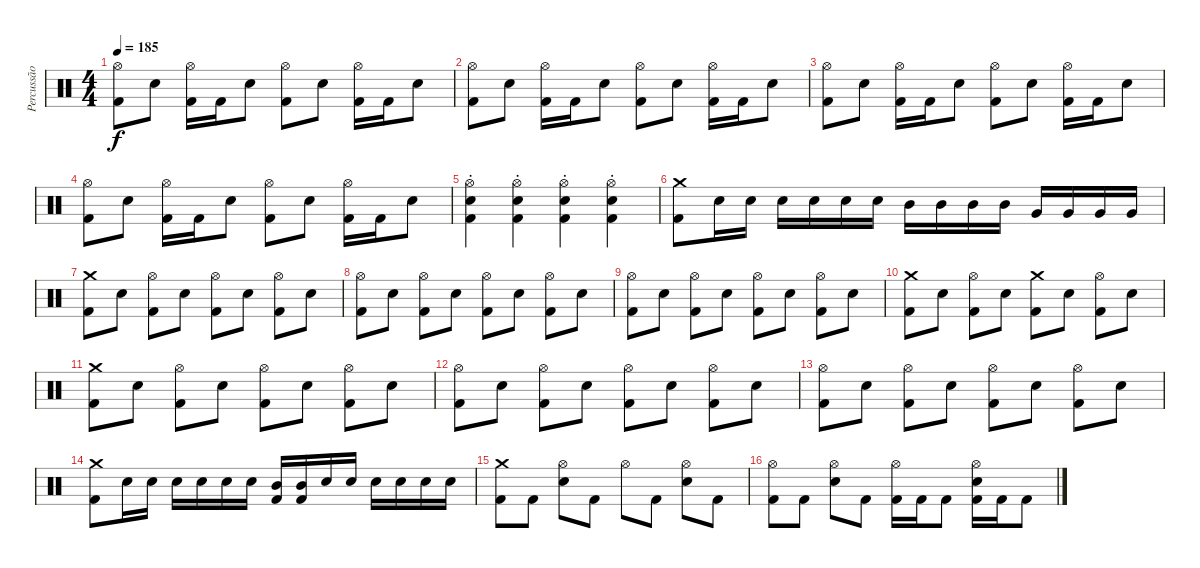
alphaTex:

\track ("Percussão" "Percussão") {instrument percussion}
\staff {score}
\articulation defaults
\ts (4 4)
\tempo 185
\clef neutral
\ks c
("Hi-Hat (open)" "Kick (hit) 2").8{dy f} "Snare (hit) 2".8 ("Hi-Hat (open)" "Kick (hit) 2").16 "Kick (hit) 2".16 "Snare (hit) 2".8 ("Hi-Hat (open)" "Kick (hit) 2").8 "Snare (hit) 2".8 ("Hi-Hat (open)" "Kick (hit) 2").16 "Kick (hit) 2".16 "Snare (hit) 2".8 |
("Hi-Hat (open)" "Kick (hit) 2").8 "Snare (hit) 2".8 ("Hi-Hat (open)" "Kick (hit) 2").16 "Kick (hit) 2".16 "Snare (hit) 2".8 ("Hi-Hat (open)" "Kick (hit) 2").8 "Snare (hit) 2".8 ("Hi-Hat (open)" "Kick (hit) 2").16 "Kick (hit) 2".16 "Snare (hit) 2".8 |
("Hi-Hat (open)" "Kick (hit) 2").8 "Snare (hit) 2".8 ("Hi-Hat (open)" "Kick (hit) 2").16 "Kick (hit) 2".16 "Snare (hit) 2".8 ("Hi-Hat (open)" "Kick (hit) 2").8 "Snare (hit) 2".8 ("Hi-Hat (open)" "Kick (hit) 2").16 "Kick (hit) 2".16 "Snare (hit) 2".8 |
("Hi-Hat (open)" "Kick (hit) 2").8 "Snare (hit) 2".8 ("Hi-Hat (open)" "Kick (hit) 2").16 "Kick (hit) 2".16 "Snare (hit) 2".8 ("Hi-Hat (open)" "Kick (hit) 2").8 "Snare (hit) 2".8 ("Hi-Hat (open)" "Kick (hit) 2").16 "Kick (hit) 2".16 "Snare (hit) 2".8 |
("Hi-Hat (open)"{st} "Snare (hit) 2" "Kick (hit) 2").4 ("Hi-Hat (open)"{st} "Snare (hit) 2" "Kick (hit) 2").4 ("Hi-Hat (open)"{st} "Snare (hit) 2" "Kick (hit) 2").4 ("Hi-Hat (open)"{st} "Snare (hit) 2" "Kick (hit) 2").4 |
("Crash medium (hit)" "Kick (hit) 2").8 "Snare (hit) 2".16 "Snare (hit) 2".16 "Snare (hit) 2".16 "Snare (hit) 2".16 "Snare (hit) 2".16 "Snare (hit) 2".16 "Mid Tom (hit)".16 "Mid Tom (hit)".16 "Mid Tom (hit)".16 "Mid Tom (hit)".16 "Very Low Tom (hit)".16 "Very Low Tom (hit)".16 "Very Low Tom (hit)".16 "Very Low Tom (hit)".16 |
("Crash medium (hit)" "Kick (hit) 2").8 "Snare (hit) 2".8 ("Hi-Hat (open)" "Kick (hit) 2").8 "Snare (hit) 2".8 ("Hi-Hat (open)" "Kick (hit) 2").8 "Snare (hit) 2".8 ("Hi-Hat (open)" "Kick (hit) 2").8 "Snare (hit) 2".8 |
("Hi-Hat (open)" "Kick (hit) 2").8 "Snare (hit) 2".8 ("Hi-Hat (open)" "Kick (hit) 2").8 "Snare (hit) 2".8 ("Hi-Hat (open)" "Kick (hit) 2").8 "Snare (hit) 2".8 ("Hi-Hat (open)" "Kick (hit) 2").8 "Snare (hit) 2".8 |
("Hi-Hat (open)" "Kick (hit) 2").8 "Snare (hit) 2".8 ("Hi-Hat (open)" "Kick (hit) 2").8 "Snare (hit) 2".8 ("Hi-Hat (open)" "Kick (hit) 2").8 "Snare (hit) 2".8 ("Hi-Hat (open)" "Kick (hit) 2").8 "Snare (hit) 2".8 |
("Crash medium (hit)" "Kick (hit) 2").8 "Snare (hit) 2".8 ("Hi-Hat (open)" "Kick (hit) 2").8 "Snare (hit) 2".8 ("Crash medium (hit)" "Kick (hit) 2").8 "Snare (hit) 2".8 ("Hi-Hat (open)" "Kick (hit) 2").8 "Snare (hit) 2".8 |
("Crash medium (hit)" "Kick (hit) 2").8 "Snare (hit) 2".8 ("Hi-Hat (open)" "Kick (hit) 2").8 "Snare (hit) 2".8 ("Hi-Hat (open)" "Kick (hit) 2").8 "Snare (hit) 2".8 ("Hi-Hat (open)" "Kick (hit) 2").8 "Snare (hit) 2".8 |
("Hi-Hat (open)" "Kick (hit) 2").8 "Snare (hit) 2".8 ("Hi-Hat (open)" "Kick (hit) 2").8 "Snare (hit) 2".8 ("Hi-Hat (open)" "Kick (hit) 2").8 "Snare (hit) 2".8 ("Hi-Hat (open)" "Kick (hit) 2").8 "Snare (hit) 2".8 |
("Hi-Hat (open)" "Kick (hit) 2").8 "Snare (hit) 2".8 ("Hi-Hat (open)" "Kick (hit) 2").8 "Snare (hit) 2".8 ("Hi-Hat (open)" "Kick (hit) 2").8 "Snare (hit) 2".8 ("Hi-Hat (open)" "Kick (hit) 2").8 "Snare (hit) 2".8 |
("Crash medium (hit)" "Kick (hit) 2").8 "Snare (hit) 2".16 "Snare (hit) 2".16 "Snare (hit) 2".16 "Snare (hit) 2".16 "Snare (hit) 2".16 "Snare (hit) 2".16 ("Mid Tom (hit)" "Kick (hit) 2").16 ("Mid Tom (hit)" "Kick (hit) 2").16 "Snare (hit) 2".16 "Snare (hit) 2".16 "Snare (hit) 2".16 "Snare (hit) 2".16 "Snare (hit) 2".16 "Snare (hit) 2".16 |
("Crash medium (hit)" "Kick (hit) 2").8 "Kick (hit) 2".8 ("Hi-Hat (open)" "Snare (hit) 2").8 "Kick (hit) 2".8 "Hi-Hat (open)".8 "Kick (hit) 2".8 ("Hi-Hat (open)" "Snare (hit) 2").8 "Kick (hit) 2".8 |
("Hi-Hat (open)" "Kick (hit) 2").8 "Kick (hit) 2".8 ("Hi-Hat (open)" "Snare (hit) 2").8 "Kick (hit) 2".8 ("Hi-Hat (open)" "Kick (hit) 2").16 "Kick (hit) 2".16 "Kick (hit) 2".8 ("Hi-Hat (open)" "Snare (hit) 2" "Kick (hit) 2").16 "Kick (hit) 2".16 "Kick (hit) 2".8
